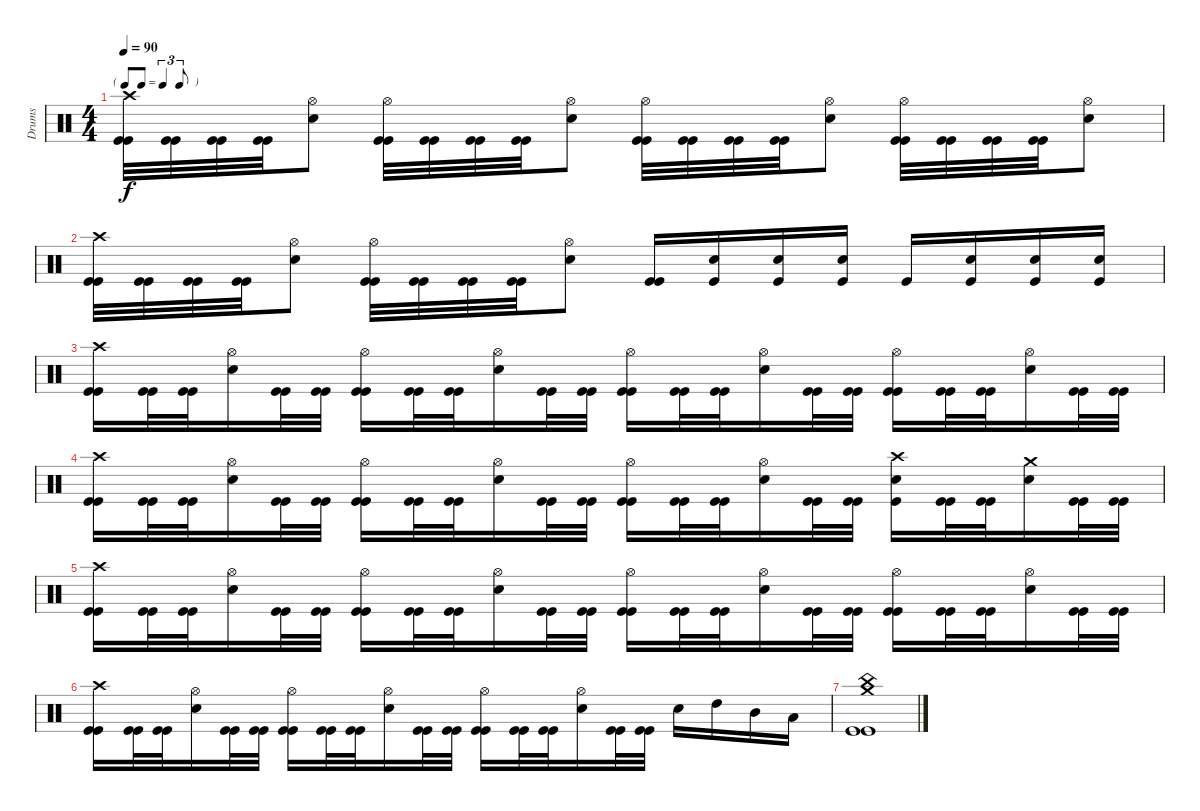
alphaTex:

\track ("Drums" "Drums") {instrument percussion}
\staff {score}
\articulation defaults
\ts (4 4)
\tf triplet8th
\tempo 90
\clef neutral
\ks c
("Kick (hit)" "Kick (hit)" "Crash high (hit)").32{dy f} ("Kick (hit)" "Kick (hit)").32 ("Kick (hit)" "Kick (hit)").32 ("Kick (hit)" "Kick (hit)").32 ("Snare (hit) 2" "Hi-Hat (open)").8 ("Kick (hit)" "Kick (hit)" "Hi-Hat (open)").32 ("Kick (hit)" "Kick (hit)").32 ("Kick (hit)" "Kick (hit)").32 ("Kick (hit)" "Kick (hit)").32 ("Snare (hit) 2" "Hi-Hat (open)").8 ("Kick (hit)" "Kick (hit)" "Hi-Hat (open)").32 ("Kick (hit)" "Kick (hit)").32 ("Kick (hit)" "Kick (hit)").32 ("Kick (hit)" "Kick (hit)").32 ("Snare (hit) 2" "Hi-Hat (open)").8 ("Kick (hit)" "Kick (hit)" "Hi-Hat (open)").32 ("Kick (hit)" "Kick (hit)").32 ("Kick (hit)" "Kick (hit)").32 ("Kick (hit)" "Kick (hit)").32 ("Snare (hit) 2" "Hi-Hat (open)").8 |
("Kick (hit)" "Kick (hit)" "Crash high (hit)").32 ("Kick (hit)" "Kick (hit)").32 ("Kick (hit)" "Kick (hit)").32 ("Kick (hit)" "Kick (hit)").32 ("Snare (hit) 2" "Hi-Hat (open)").8 ("Kick (hit)" "Kick (hit)" "Hi-Hat (open)").32 ("Kick (hit)" "Kick (hit)").32 ("Kick (hit)" "Kick (hit)").32 ("Kick (hit)" "Kick (hit)").32 ("Snare (hit) 2" "Hi-Hat (open)").8 ("Kick (hit)" "Kick (hit)").16 ("Kick (hit)" "Snare (hit) 2").16 ("Kick (hit)" "Snare (hit) 2").16 ("Kick (hit)" "Snare (hit) 2").16 "Kick (hit)".16 ("Kick (hit)" "Snare (hit) 2").16 ("Kick (hit)" "Snare (hit) 2").16 ("Kick (hit)" "Snare (hit) 2").16 |
("Kick (hit)" "Kick (hit)" "Crash high (hit)").16 ("Kick (hit)" "Kick (hit)").32 ("Kick (hit)" "Kick (hit)").32 ("Snare (hit) 2" "Hi-Hat (open)").16 ("Kick (hit)" "Kick (hit)").32 ("Kick (hit)" "Kick (hit)").32 ("Kick (hit)" "Kick (hit)" "Hi-Hat (open)").16 ("Kick (hit)" "Kick (hit)").32 ("Kick (hit)" "Kick (hit)").32 ("Snare (hit) 2" "Hi-Hat (open)").16 ("Kick (hit)" "Kick (hit)").32 ("Kick (hit)" "Kick (hit)").32 ("Kick (hit)" "Kick (hit)" "Hi-Hat (open)").16 ("Kick (hit)" "Kick (hit)").32 ("Kick (hit)" "Kick (hit)").32 ("Snare (hit) 2" "Hi-Hat (open)").16 ("Kick (hit)" "Kick (hit)").32 ("Kick (hit)" "Kick (hit)").32 ("Kick (hit)" "Kick (hit)" "Hi-Hat (open)").16 ("Kick (hit)" "Kick (hit)").32 ("Kick (hit)" "Kick (hit)").32 ("Snare (hit) 2" "Hi-Hat (open)").16 ("Kick (hit)" "Kick (hit)").32 ("Kick (hit)" "Kick (hit)").32 |
("Kick (hit)" "Kick (hit)" "Crash high (hit)").16 ("Kick (hit)" "Kick (hit)").32 ("Kick (hit)" "Kick (hit)").32 ("Snare (hit) 2" "Hi-Hat (open)").16 ("Kick (hit)" "Kick (hit)").32 ("Kick (hit)" "Kick (hit)").32 ("Kick (hit)" "Kick (hit)" "Hi-Hat (open)").16 ("Kick (hit)" "Kick (hit)").32 ("Kick (hit)" "Kick (hit)").32 ("Snare (hit) 2" "Hi-Hat (open)").16 ("Kick (hit)" "Kick (hit)").32 ("Kick (hit)" "Kick (hit)").32 ("Kick (hit)" "Kick (hit)" "Hi-Hat (open)").16 ("Kick (hit)" "Kick (hit)").32 ("Kick (hit)" "Kick (hit)").32 ("Snare (hit) 2" "Hi-Hat (open)").16 ("Kick (hit)" "Kick (hit)").32 ("Kick (hit)" "Kick (hit)").32 ("Kick (hit)" "Snare (hit) 2" "Crash high (hit)").16 ("Kick (hit)" "Kick (hit)").32 ("Kick (hit)" "Kick (hit)").32 ("Snare (hit) 2" "Crash medium (hit)").16 ("Kick (hit)" "Kick (hit)").32 ("Kick (hit)" "Kick (hit)").32 |
("Kick (hit)" "Kick (hit)" "Crash high (hit)").16 ("Kick (hit)" "Kick (hit)").32 ("Kick (hit)" "Kick (hit)").32 ("Snare (hit) 2" "Hi-Hat (open)").16 ("Kick (hit)" "Kick (hit)").32 ("Kick (hit)" "Kick (hit)").32 ("Kick (hit)" "Kick (hit)" "Hi-Hat (open)").16 ("Kick (hit)" "Kick (hit)").32 ("Kick (hit)" "Kick (hit)").32 ("Snare (hit) 2" "Hi-Hat (open)").16 ("Kick (hit)" "Kick (hit)").32 ("Kick (hit)" "Kick (hit)").32 ("Kick (hit)" "Kick (hit)" "Hi-Hat (open)").16 ("Kick (hit)" "Kick (hit)").32 ("Kick (hit)" "Kick (hit)").32 ("Snare (hit) 2" "Hi-Hat (open)").16 ("Kick (hit)" "Kick (hit)").32 ("Kick (hit)" "Kick (hit)").32 ("Kick (hit)" "Kick (hit)" "Hi-Hat (open)").16 ("Kick (hit)" "Kick (hit)").32 ("Kick (hit)" "Kick (hit)").32 ("Snare (hit) 2" "Hi-Hat (open)").16 ("Kick (hit)" "Kick (hit)").32 ("Kick (hit)" "Kick (hit)").32 |
("Kick (hit)" "Kick (hit)" "Crash high (hit)").16 ("Kick (hit)" "Kick (hit)").32 ("Kick (hit)" "Kick (hit)").32 ("Snare (hit) 2" "Hi-Hat (open)").16 ("Kick (hit)" "Kick (hit)").32 ("Kick (hit)" "Kick (hit)").32 ("Kick (hit)" "Kick (hit)" "Hi-Hat (open)").16 ("Kick (hit)" "Kick (hit)").32 ("Kick (hit)" "Kick (hit)").32 ("Snare (hit) 2" "Hi-Hat (open)").16 ("Kick (hit)" "Kick (hit)").32 ("Kick (hit)" "Kick (hit)").32 ("Kick (hit)" "Kick (hit)" "Hi-Hat (open)").16 ("Kick (hit)" "Kick (hit)").32 ("Kick (hit)" "Kick (hit)").32 ("Snare (hit) 2" "Hi-Hat (open)").16 ("Kick (hit)" "Kick (hit)").32 ("Kick (hit)" "Kick (hit)").32 "Snare (hit) 2".16 "High Tom (hit)".16 "Mid Tom (hit)".16 "Low Tom (hit)".16 |
("China (hit)" "Crash medium (hit)" "Kick (hit)" "Kick (hit)").1
